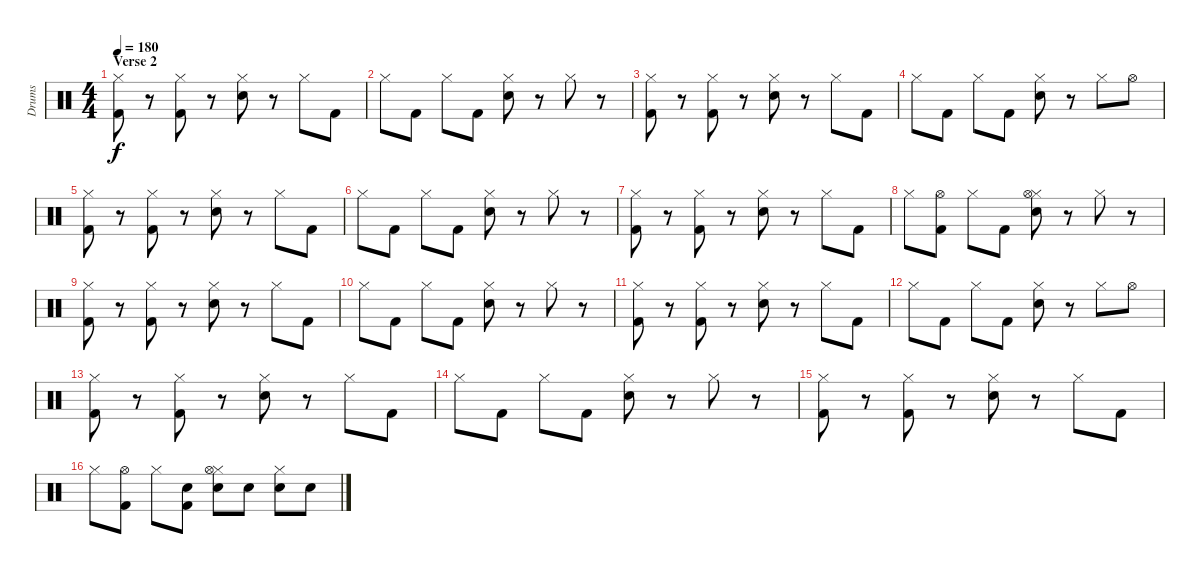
\track ("Drums" "Drums") {instrument percussion}
\staff {score}
\articulation defaults
\ts (4 4)
\section ("" "Verse 2")
\tempo 180
\clef neutral
\ks c
("Hi-Hat (closed)" "Kick (hit) 2").8{dy f} r.8 ("Hi-Hat (closed)" "Kick (hit) 2").8 r.8 ("Hi-Hat (closed)" "Snare (hit) 2").8 r.8 "Hi-Hat (closed)".8 "Kick (hit) 2".8 |
"Hi-Hat (closed)".8 "Kick (hit) 2".8 "Hi-Hat (closed)".8 "Kick (hit) 2".8 ("Hi-Hat (closed)" "Snare (hit) 2").8 r.8 "Hi-Hat (closed)".8 r.8 |
("Hi-Hat (closed)" "Kick (hit) 2").8 r.8 ("Hi-Hat (closed)" "Kick (hit) 2").8 r.8 ("Hi-Hat (closed)" "Snare (hit) 2").8 r.8 "Hi-Hat (closed)".8 "Kick (hit) 2".8 |
"Hi-Hat (closed)".8 "Kick (hit) 2".8 "Hi-Hat (closed)".8 "Kick (hit) 2".8 ("Hi-Hat (closed)" "Snare (hit) 2").8 r.8 "Hi-Hat (closed)".8 "Hi-Hat (open)".8 |
("Hi-Hat (closed)" "Kick (hit) 2").8 r.8 ("Hi-Hat (closed)" "Kick (hit) 2").8 r.8 ("Hi-Hat (closed)" "Snare (hit) 2").8 r.8 "Hi-Hat (closed)".8 "Kick (hit) 2".8 |
"Hi-Hat (closed)".8 "Kick (hit) 2".8 "Hi-Hat (closed)".8 "Kick (hit) 2".8 ("Hi-Hat (closed)" "Snare (hit) 2").8 r.8 "Hi-Hat (closed)".8 r.8 |
("Hi-Hat (closed)" "Kick (hit) 2").8 r.8 ("Hi-Hat (closed)" "Kick (hit) 2").8 r.8 ("Hi-Hat (closed)" "Snare (hit) 2").8 r.8 "Hi-Hat (closed)".8 "Kick (hit) 2".8 |
"Hi-Hat (closed)".8 ("Kick (hit) 2" "Hi-Hat (open)").8 "Hi-Hat (closed)".8 "Kick (hit) 2".8 ("Hi-Hat (closed)" "Snare (hit) 2" "Hi-Hat (open)").8 r.8 "Hi-Hat (closed)".8 r.8 |
("Hi-Hat (closed)" "Kick (hit) 2").8 r.8 ("Hi-Hat (closed)" "Kick (hit) 2").8 r.8 ("Hi-Hat (closed)" "Snare (hit) 2").8 r.8 "Hi-Hat (closed)".8 "Kick (hit) 2".8 |
"Hi-Hat (closed)".8 "Kick (hit) 2".8 "Hi-Hat (closed)".8 "Kick (hit) 2".8 ("Hi-Hat (closed)" "Snare (hit) 2").8 r.8 "Hi-Hat (closed)".8 r.8 |
("Hi-Hat (closed)" "Kick (hit) 2").8 r.8 ("Hi-Hat (closed)" "Kick (hit) 2").8 r.8 ("Hi-Hat (closed)" "Snare (hit) 2").8 r.8 "Hi-Hat (closed)".8 "Kick (hit) 2".8 |
"Hi-Hat (closed)".8 "Kick (hit) 2".8 "Hi-Hat (closed)".8 "Kick (hit) 2".8 ("Hi-Hat (closed)" "Snare (hit) 2").8 r.8 "Hi-Hat (closed)".8 "Hi-Hat (open)".8 |
("Hi-Hat (closed)" "Kick (hit) 2").8 r.8 ("Hi-Hat (closed)" "Kick (hit) 2").8 r.8 ("Hi-Hat (closed)" "Snare (hit) 2").8 r.8 "Hi-Hat (closed)".8 "Kick (hit) 2".8 |
"Hi-Hat (closed)".8 "Kick (hit) 2".8 "Hi-Hat (closed)".8 "Kick (hit) 2".8 ("Hi-Hat (closed)" "Snare (hit) 2").8 r.8 "Hi-Hat (closed)".8 r.8 |
("Hi-Hat (closed)" "Kick (hit) 2").8 r.8 ("Hi-Hat (closed)" "Kick (hit) 2").8 r.8 ("Hi-Hat (closed)" "Snare (hit) 2").8 r.8 "Hi-Hat (closed)".8 "Kick (hit) 2".8 |
"Hi-Hat (closed)".8 ("Kick (hit) 2" "Hi-Hat (open)").8 "Hi-Hat (closed)".8 ("Snare (hit) 2" "Kick (hit) 2").8 ("Hi-Hat (closed)" "Snare (hit) 2" "Hi-Hat (open)").8 "Snare (hit) 2".8 ("Hi-Hat (closed)" "Snare (hit) 2").8 "Snare (hit) 2".8
